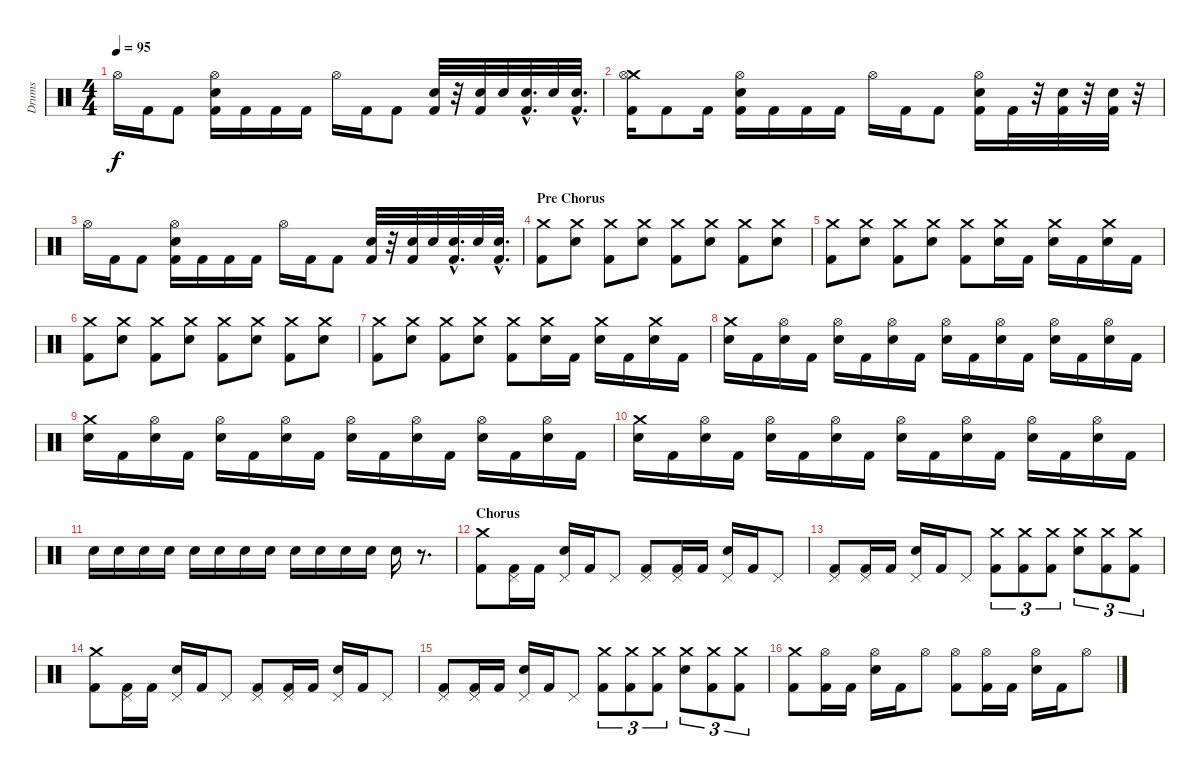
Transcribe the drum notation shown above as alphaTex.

\track ("Drums" "Drums") {instrument percussion}
\staff {score}
\articulation defaults
\ts (4 4)
\tempo 95
\clef neutral
\ks c "Hi-Hat (open)".16{dy f} "Kick (hit) 2".16 "Kick (hit) 2".8
("Hi-Hat (open)" "Kick (hit) 2" "Snare (hit) 2").16 "Kick (hit) 2".16 "Kick (hit) 2".16 "Kick (hit) 2".16 "Hi-Hat (open)".16 "Kick (hit) 2".16 "Kick (hit) 2".8 ("Kick (hit) 2" "Snare (hit) 2").32 r.32 ("Kick (hit) 2" "Snare (hit) 2").32 "Snare (hit) 2".32 ("Kick (hit) 2"{hac} "Snare (hit) 2"{hac}).32{d} "Snare (hit) 2".32 ("Kick (hit) 2"{hac} "Snare (hit) 2"{hac}).32{d} |
("Crash medium (hit)" "Kick (hit) 2" "Hi-Hat (open)").16 "Kick (hit) 2".8 "Kick (hit) 2".16 ("Hi-Hat (open)" "Kick (hit) 2" "Snare (hit) 2").16 "Kick (hit) 2".16 "Kick (hit) 2".16 "Kick (hit) 2".16 "Hi-Hat (open)".16 "Kick (hit) 2".16 "Kick (hit) 2".8 ("Hi-Hat (open)" "Kick (hit) 2" "Snare (hit) 2").16 "Kick (hit) 2".32 r.32 ("Kick (hit) 2" "Snare (hit) 2").32 r.32 ("Kick (hit) 2" "Snare (hit) 2").32 r.32 |
"Hi-Hat (open)".16 "Kick (hit) 2".16 "Kick (hit) 2".8 ("Hi-Hat (open)" "Kick (hit) 2" "Snare (hit) 2").16 "Kick (hit) 2".16 "Kick (hit) 2".16 "Kick (hit) 2".16 "Hi-Hat (open)".16 "Kick (hit) 2".16 "Kick (hit) 2".8 ("Kick (hit) 2" "Snare (hit) 2").32 r.32 ("Kick (hit) 2" "Snare (hit) 2").32 "Snare (hit) 2".32 ("Kick (hit) 2"{hac} "Snare (hit) 2"{hac}).32{d} "Snare (hit) 2".32 ("Kick (hit) 2"{hac} "Snare (hit) 2"{hac}).32{d} |
\section ("" "Pre Chorus")
("Crash medium (hit)" "Kick (hit) 2").8 ("Crash medium (hit)" "Electric Snare (hit)").8 ("Crash medium (hit)" "Kick (hit) 2").8 ("Crash medium (hit)" "Electric Snare (hit)").8 ("Crash medium (hit)" "Kick (hit) 2").8 ("Crash medium (hit)" "Electric Snare (hit)").8 ("Crash medium (hit)" "Kick (hit) 2").8 ("Crash medium (hit)" "Electric Snare (hit)").8 |
("Crash medium (hit)" "Kick (hit) 2").8 ("Crash medium (hit)" "Electric Snare (hit)").8 ("Crash medium (hit)" "Kick (hit) 2").8 ("Crash medium (hit)" "Electric Snare (hit)").8 ("Crash medium (hit)" "Kick (hit) 2").8 ("Crash medium (hit)" "Electric Snare (hit)").16 "Kick (hit) 2".16 ("Crash medium (hit)" "Electric Snare (hit)").16 "Kick (hit) 2".16 ("Crash medium (hit)" "Electric Snare (hit)").16 "Kick (hit) 2".16 |
("Crash medium (hit)" "Kick (hit) 2").8 ("Crash medium (hit)" "Electric Snare (hit)").8 ("Crash medium (hit)" "Kick (hit) 2").8 ("Crash medium (hit)" "Electric Snare (hit)").8 ("Crash medium (hit)" "Kick (hit) 2").8 ("Crash medium (hit)" "Electric Snare (hit)").8 ("Crash medium (hit)" "Kick (hit) 2").8 ("Crash medium (hit)" "Electric Snare (hit)").8 |
("Crash medium (hit)" "Kick (hit) 2").8 ("Crash medium (hit)" "Electric Snare (hit)").8 ("Crash medium (hit)" "Kick (hit) 2").8 ("Crash medium (hit)" "Electric Snare (hit)").8 ("Crash medium (hit)" "Kick (hit) 2").8 ("Crash medium (hit)" "Electric Snare (hit)").16 "Kick (hit) 2".16 ("Crash medium (hit)" "Electric Snare (hit)").16 "Kick (hit) 2".16 ("Crash medium (hit)" "Electric Snare (hit)").16 "Kick (hit) 2".16 |
("Crash medium (hit)" "Electric Snare (hit)").16 "Kick (hit) 2".16 ("Hi-Hat (open)" "Electric Snare (hit)").16 "Kick (hit) 2".16 ("Hi-Hat (open)" "Electric Snare (hit)").16 "Kick (hit) 2".16 ("Hi-Hat (open)" "Electric Snare (hit)").16 "Kick (hit) 2".16 ("Hi-Hat (open)" "Electric Snare (hit)").16 "Kick (hit) 2".16 ("Hi-Hat (open)" "Electric Snare (hit)").16 "Kick (hit) 2".16 ("Hi-Hat (open)" "Electric Snare (hit)").16 "Kick (hit) 2".16 ("Hi-Hat (open)" "Electric Snare (hit)").16 "Kick (hit) 2".16 |
("Crash medium (hit)" "Electric Snare (hit)").16 "Kick (hit) 2".16 ("Hi-Hat (open)" "Electric Snare (hit)").16 "Kick (hit) 2".16 ("Hi-Hat (open)" "Electric Snare (hit)").16 "Kick (hit) 2".16 ("Hi-Hat (open)" "Electric Snare (hit)").16 "Kick (hit) 2".16 ("Hi-Hat (open)" "Electric Snare (hit)").16 "Kick (hit) 2".16 ("Hi-Hat (open)" "Electric Snare (hit)").16 "Kick (hit) 2".16 ("Hi-Hat (open)" "Electric Snare (hit)").16 "Kick (hit) 2".16 ("Hi-Hat (open)" "Electric Snare (hit)").16 "Kick (hit) 2".16 |
("Crash medium (hit)" "Electric Snare (hit)").16 "Kick (hit) 2".16 ("Hi-Hat (open)" "Electric Snare (hit)").16 "Kick (hit) 2".16 ("Hi-Hat (open)" "Electric Snare (hit)").16 "Kick (hit) 2".16 ("Hi-Hat (open)" "Electric Snare (hit)").16 "Kick (hit) 2".16 ("Hi-Hat (open)" "Electric Snare (hit)").16 "Kick (hit) 2".16 ("Hi-Hat (open)" "Electric Snare (hit)").16 "Kick (hit) 2".16 ("Hi-Hat (open)" "Electric Snare (hit)").16 "Kick (hit) 2".16 ("Hi-Hat (open)" "Electric Snare (hit)").16 "Kick (hit) 2".16 |
"Electric Snare (hit)".16 "Electric Snare (hit)".16 "Electric Snare (hit)".16 "Electric Snare (hit)".16 "Electric Snare (hit)".16 "Electric Snare (hit)".16 "Electric Snare (hit)".16 "Electric Snare (hit)".16 "Electric Snare (hit)".16 "Electric Snare (hit)".16 "Electric Snare (hit)".16 "Electric Snare (hit)".16 "Electric Snare (hit)".16 r.8{d} |
\section ("" "Chorus")
("Crash medium (hit)" "Kick (hit) 2").8 ("Pedal Hi-Hat (hit)" "Kick (hit) 2").16 "Kick (hit) 2".16 ("Pedal Hi-Hat (hit)" "Electric Snare (hit)").16 "Kick (hit) 2".16 "Pedal Hi-Hat (hit)".8 ("Pedal Hi-Hat (hit)" "Kick (hit) 2").8 ("Pedal Hi-Hat (hit)" "Kick (hit) 2").16 "Kick (hit) 2".16 ("Pedal Hi-Hat (hit)" "Electric Snare (hit)").16 "Kick (hit) 2".16 "Pedal Hi-Hat (hit)".8 |
("Pedal Hi-Hat (hit)" "Kick (hit) 2").8 ("Pedal Hi-Hat (hit)" "Kick (hit) 2").16 "Kick (hit) 2".16 ("Pedal Hi-Hat (hit)" "Electric Snare (hit)").16 "Kick (hit) 2".16 "Pedal Hi-Hat (hit)".8 ("Crash medium (hit)" "Kick (hit) 2").8{tu (3 2)} ("Crash medium (hit)" "Kick (hit) 2").8{tu (3 2)} ("Crash medium (hit)" "Kick (hit) 2").8{tu (3 2)} ("Crash medium (hit)" "Electric Snare (hit)").8{tu (3 2)} ("Crash medium (hit)" "Kick (hit) 2").8{tu (3 2)} ("Crash medium (hit)" "Kick (hit) 2").8{tu (3 2)} |
("Crash medium (hit)" "Kick (hit) 2").8 ("Pedal Hi-Hat (hit)" "Kick (hit) 2").16 "Kick (hit) 2".16 ("Pedal Hi-Hat (hit)" "Electric Snare (hit)").16 "Kick (hit) 2".16 "Pedal Hi-Hat (hit)".8 ("Pedal Hi-Hat (hit)" "Kick (hit) 2").8 ("Pedal Hi-Hat (hit)" "Kick (hit) 2").16 "Kick (hit) 2".16 ("Pedal Hi-Hat (hit)" "Electric Snare (hit)").16 "Kick (hit) 2".16 "Pedal Hi-Hat (hit)".8 |
("Pedal Hi-Hat (hit)" "Kick (hit) 2").8 ("Pedal Hi-Hat (hit)" "Kick (hit) 2").16 "Kick (hit) 2".16 ("Pedal Hi-Hat (hit)" "Electric Snare (hit)").16 "Kick (hit) 2".16 "Pedal Hi-Hat (hit)".8 ("Crash medium (hit)" "Kick (hit) 2").8{tu (3 2)} ("Crash medium (hit)" "Kick (hit) 2").8{tu (3 2)} ("Crash medium (hit)" "Kick (hit) 2").8{tu (3 2)} ("Crash medium (hit)" "Electric Snare (hit)").8{tu (3 2)} ("Crash medium (hit)" "Kick (hit) 2").8{tu (3 2)} ("Crash medium (hit)" "Kick (hit) 2").8{tu (3 2)} |
("Crash medium (hit)" "Kick (hit) 2").8 ("Hi-Hat (open)" "Kick (hit) 2").16 "Kick (hit) 2".16 ("Hi-Hat (open)" "Electric Snare (hit)").16 "Kick (hit) 2".16 "Hi-Hat (open)".8 ("Hi-Hat (open)" "Kick (hit) 2").8 ("Hi-Hat (open)" "Kick (hit) 2").16 "Kick (hit) 2".16 ("Hi-Hat (open)" "Electric Snare (hit)").16 "Kick (hit) 2".16 "Hi-Hat (open)".8
